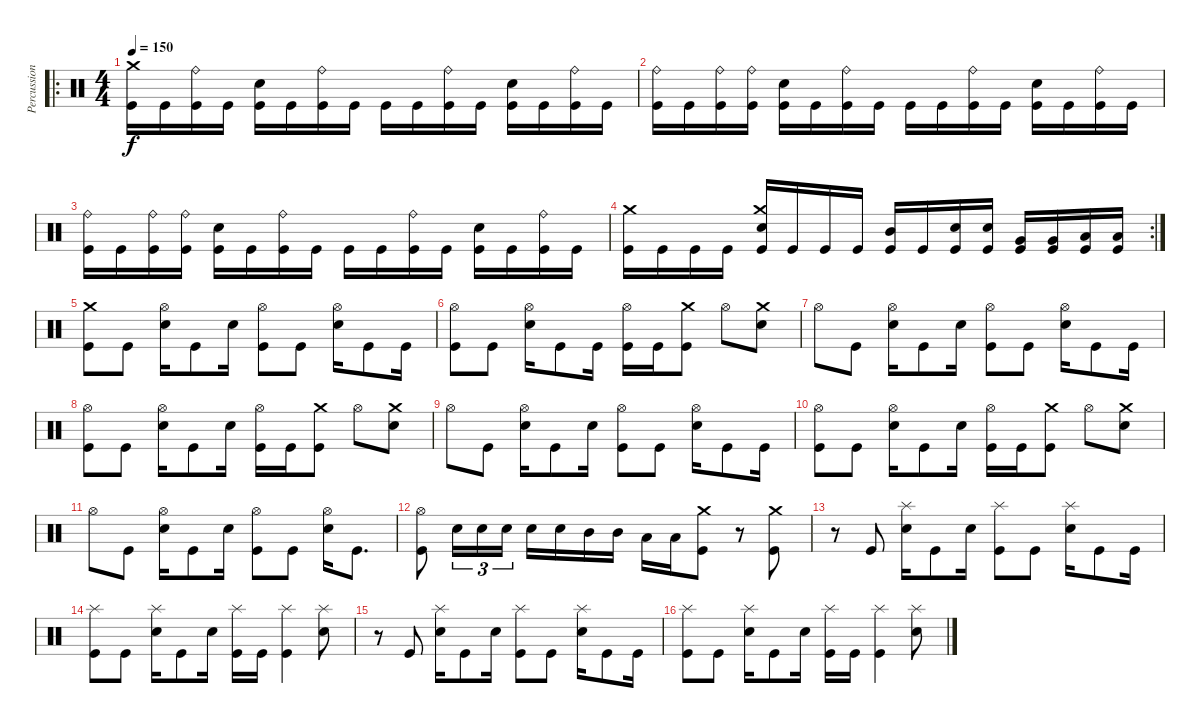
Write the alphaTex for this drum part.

\track ("Percussions" "Percussion") {instrument percussion}
\staff {score}
\articulation defaults
\ro
\ts (4 4)
\tempo 150
\clef neutral
\ks c
("Kick (hit)" "Crash medium (hit)").16{dy f} "Kick (hit)".16 ("Kick (hit)" "Ride (bell)").16 "Kick (hit)".16 ("Kick (hit)" "Electric Snare (hit)").16 "Kick (hit)".16 ("Kick (hit)" "Ride (bell)").16 "Kick (hit)".16 "Kick (hit)".16 "Kick (hit)".16 ("Kick (hit)" "Ride (bell)").16 "Kick (hit)".16 ("Kick (hit)" "Electric Snare (hit)").16 "Kick (hit)".16 ("Kick (hit)" "Ride (bell)").16 "Kick (hit)".16 |
("Kick (hit)" "Ride (bell)").16 "Kick (hit)".16 ("Kick (hit)" "Ride (bell)").16 ("Kick (hit)" "Ride (bell)").16 ("Kick (hit)" "Electric Snare (hit)").16 "Kick (hit)".16 ("Kick (hit)" "Ride (bell)").16 "Kick (hit)".16 "Kick (hit)".16 "Kick (hit)".16 ("Kick (hit)" "Ride (bell)").16 "Kick (hit)".16 ("Kick (hit)" "Electric Snare (hit)").16 "Kick (hit)".16 ("Kick (hit)" "Ride (bell)").16 "Kick (hit)".16 |
("Kick (hit)" "Ride (bell)").16 "Kick (hit)".16 ("Kick (hit)" "Ride (bell)").16 ("Kick (hit)" "Ride (bell)").16 ("Kick (hit)" "Electric Snare (hit)").16 "Kick (hit)".16 ("Kick (hit)" "Ride (bell)").16 "Kick (hit)".16 "Kick (hit)".16 "Kick (hit)".16 ("Kick (hit)" "Ride (bell)").16 "Kick (hit)".16 ("Kick (hit)" "Electric Snare (hit)").16 "Kick (hit)".16 ("Kick (hit)" "Ride (bell)").16 "Kick (hit)".16 |
\rc 2
("Kick (hit)" "Crash medium (hit)").16 "Kick (hit)".16 "Kick (hit)".16 "Kick (hit)".16 ("Kick (hit)" "Electric Snare (hit)" "Crash medium (hit)").16 "Kick (hit)".16 "Kick (hit)".16 "Kick (hit)".16 ("Kick (hit)" "Mid Tom (hit)").16 "Kick (hit)".16 ("Kick (hit)" "Electric Snare (hit)").16 ("Kick (hit)" "Electric Snare (hit)").16 ("Kick (hit)" "Very Low Tom (hit)").16 ("Kick (hit)" "Very Low Tom (hit)").16 ("Kick (hit)" "Low Floor Tom (hit)").16 ("Kick (hit)" "Low Floor Tom (hit)").16 |
("Kick (hit)" "Crash medium (hit)").8 "Kick (hit)".8 ("Electric Snare (hit)" "Hi-Hat (open)").16 "Kick (hit)".8 "Electric Snare (hit)".16 ("Kick (hit)" "Hi-Hat (open)").8 "Kick (hit)".8 ("Electric Snare (hit)" "Hi-Hat (open)").16 "Kick (hit)".8 "Kick (hit)".16 |
("Kick (hit)" "Hi-Hat (open)").8 "Kick (hit)".8 ("Electric Snare (hit)" "Hi-Hat (open)").16 "Kick (hit)".8 "Kick (hit)".16 ("Kick (hit)" "Hi-Hat (open)").16 "Kick (hit)".16 ("Kick (hit)" "Crash medium (hit)").8 "Hi-Hat (open)".8 ("Electric Snare (hit)" "Crash medium (hit)").8 |
"Hi-Hat (open)".8 "Kick (hit)".8 ("Electric Snare (hit)" "Hi-Hat (open)").16 "Kick (hit)".8 "Electric Snare (hit)".16 ("Kick (hit)" "Hi-Hat (open)").8 "Kick (hit)".8 ("Electric Snare (hit)" "Hi-Hat (open)").16 "Kick (hit)".8 "Kick (hit)".16 |
("Kick (hit)" "Hi-Hat (open)").8 "Kick (hit)".8 ("Electric Snare (hit)" "Hi-Hat (open)").16 "Kick (hit)".8 "Electric Snare (hit)".16 ("Kick (hit)" "Hi-Hat (open)").16 "Kick (hit)".16 ("Kick (hit)" "Crash medium (hit)").8 "Hi-Hat (open)".8 ("Electric Snare (hit)" "Crash medium (hit)").8 |
"Hi-Hat (open)".8 "Kick (hit)".8 ("Electric Snare (hit)" "Hi-Hat (open)").16 "Kick (hit)".8 "Electric Snare (hit)".16 ("Kick (hit)" "Hi-Hat (open)").8 "Kick (hit)".8 ("Electric Snare (hit)" "Hi-Hat (open)").16 "Kick (hit)".8 "Kick (hit)".16 |
("Kick (hit)" "Hi-Hat (open)").8 "Kick (hit)".8 ("Electric Snare (hit)" "Hi-Hat (open)").16 "Kick (hit)".8 "Electric Snare (hit)".16 ("Kick (hit)" "Hi-Hat (open)").16 "Kick (hit)".16 ("Kick (hit)" "Crash medium (hit)").8 "Hi-Hat (open)".8 ("Electric Snare (hit)" "Crash medium (hit)").8 |
"Hi-Hat (open)".8 "Kick (hit)".8 ("Electric Snare (hit)" "Hi-Hat (open)").16 "Kick (hit)".8 "Electric Snare (hit)".16 ("Kick (hit)" "Hi-Hat (open)").8 "Kick (hit)".8 ("Electric Snare (hit)" "Hi-Hat (open)").16 "Kick (hit)".8{d} |
("Kick (hit)" "Hi-Hat (open)").8 "Electric Snare (hit)".16{tu (3 2)} "Electric Snare (hit)".16{tu (3 2)} "Electric Snare (hit)".16{tu (3 2)} "Electric Snare (hit)".16 "Electric Snare (hit)".16 "Mid Tom (hit)".16 "Mid Tom (hit)".16 "Low Tom (hit)".16 "Low Tom (hit)".16 ("Kick (hit)" "Crash medium (hit)").8 r.8 ("Kick (hit)" "Crash medium (hit)").8 |
r.8 "Kick (hit)".8 ("Electric Snare (hit)" "Splash (hit)").16 "Kick (hit)".8 "Electric Snare (hit)".16 ("Kick (hit)" "Splash (hit)").8 "Kick (hit)".8 ("Electric Snare (hit)" "Splash (hit)").16 "Kick (hit)".8 "Kick (hit)".16 |
("Kick (hit)" "Splash (hit)").8 "Kick (hit)".8 ("Electric Snare (hit)" "Splash (hit)").16 "Kick (hit)".8 "Electric Snare (hit)".16 ("Kick (hit)" "Splash (hit)").16 "Kick (hit)".16 ("Kick (hit)" "Splash (hit)").4 ("Electric Snare (hit)" "Splash (hit)").8 |
r.8 "Kick (hit)".8 ("Electric Snare (hit)" "Splash (hit)").16 "Kick (hit)".8 "Electric Snare (hit)".16 ("Kick (hit)" "Splash (hit)").8 "Kick (hit)".8 ("Electric Snare (hit)" "Splash (hit)").16 "Kick (hit)".8 "Kick (hit)".16 |
("Kick (hit)" "Splash (hit)").8 "Kick (hit)".8 ("Electric Snare (hit)" "Splash (hit)").16 "Kick (hit)".8 "Electric Snare (hit)".16 ("Kick (hit)" "Splash (hit)").16 "Kick (hit)".16 ("Kick (hit)" "Splash (hit)").4 ("Electric Snare (hit)" "Splash (hit)").8
